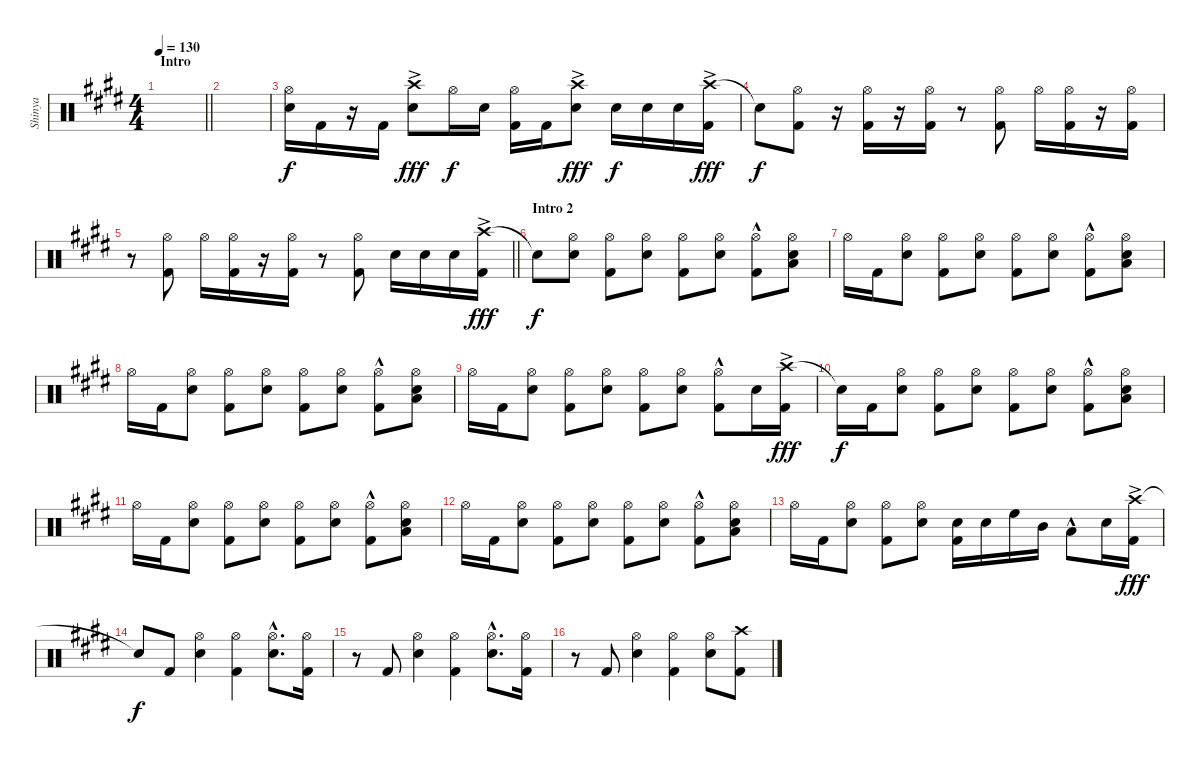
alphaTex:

\track ("Shinya" "Shinya") {instrument percussion}
\staff {score}
\articulation defaults
\ts (4 4)
\section ("" "Intro")
\tempo 130
\clef neutral
\barLineRight lightlight
\ks e
|
|
("Hi-Hat (open)" "Snare (hit) 2").16 "Kick (hit) 2".16 r.16 "Kick (hit) 2".16 ("Crash high (hit)"{ac} "Snare (hit) 2").8{dy fff} "Hi-Hat (open)".16{dy f} "Snare (hit) 2".16 ("Hi-Hat (open)" "Kick (hit) 2").16 "Kick (hit) 2".16 ("Crash high (hit)"{ac} "Snare (hit) 2").8{dy fff} "Snare (hit) 2".16{dy f} "Snare (hit) 2".16 "Snare (hit) 2".16 ("Crash high (hit)"{ac} "Kick (hit) 2").16{dy fff} |
"Snare (hit)"{t}.8{dy f} ("Hi-Hat (open)" "Kick (hit) 2").8 r.16 ("Hi-Hat (open)" "Kick (hit) 2").16 r.16 ("Hi-Hat (open)" "Kick (hit) 2").16 r.8 ("Hi-Hat (open)" "Kick (hit) 2").8 "Hi-Hat (open)".16 ("Hi-Hat (open)" "Kick (hit) 2").16 r.16 ("Hi-Hat (open)" "Kick (hit) 2").16 |
\barLineRight lightlight
r.8 ("Hi-Hat (open)" "Kick (hit) 2").8 "Hi-Hat (open)".16 ("Hi-Hat (open)" "Kick (hit) 2").16 r.16 ("Hi-Hat (open)" "Kick (hit) 2").16 r.8 ("Hi-Hat (open)" "Kick (hit) 2").8 "Snare (hit) 2".16 "Snare (hit) 2".16 "Snare (hit) 2".16 ("Crash high (hit)"{ac} "Kick (hit) 2").16{dy fff} |
\section ("" "Intro 2")
"Snare (hit)"{t}.8{dy f} ("Hi-Hat (open)" "Snare (hit) 2").8 ("Hi-Hat (open)" "Kick (hit) 2").8 ("Hi-Hat (open)" "Snare (hit) 2").8 ("Hi-Hat (open)" "Kick (hit) 2").8 ("Hi-Hat (open)" "Snare (hit) 2").8 ("Hi-Hat (open)"{hac} "Kick (hit) 2").8 ("Hi-Hat (open)" "Low Floor Tom (hit)" "Snare (hit) 2").8 |
"Hi-Hat (open)".16 "Kick (hit) 2".16 ("Hi-Hat (open)" "Snare (hit) 2").8 ("Hi-Hat (open)" "Kick (hit) 2").8 ("Hi-Hat (open)" "Snare (hit) 2").8 ("Hi-Hat (open)" "Kick (hit) 2").8 ("Hi-Hat (open)" "Snare (hit) 2").8 ("Hi-Hat (open)" "Kick (hit) 2"{hac}).8 ("Hi-Hat (open)" "Low Floor Tom (hit)" "Snare (hit) 2").8 |
"Hi-Hat (open)".16 "Kick (hit) 2".16 ("Hi-Hat (open)" "Snare (hit) 2").8 ("Hi-Hat (open)" "Kick (hit) 2").8 ("Hi-Hat (open)" "Snare (hit) 2").8 ("Hi-Hat (open)" "Kick (hit) 2").8 ("Hi-Hat (open)" "Snare (hit) 2").8 ("Hi-Hat (open)" "Kick (hit) 2"{hac}).8 ("Hi-Hat (open)" "Low Floor Tom (hit)" "Snare (hit) 2").8 |
"Hi-Hat (open)".16 "Kick (hit) 2".16 ("Hi-Hat (open)" "Snare (hit) 2").8 ("Hi-Hat (open)" "Kick (hit) 2").8 ("Hi-Hat (open)" "Snare (hit) 2").8 ("Hi-Hat (open)" "Kick (hit) 2").8 ("Hi-Hat (open)" "Snare (hit) 2").8 ("Hi-Hat (open)" "Kick (hit) 2"{hac}).8 "Snare (hit) 2".16 ("Crash high (hit)"{ac} "Kick (hit) 2").16{dy fff} |
"Snare (hit)"{t}.16{dy f} "Kick (hit) 2".16 ("Hi-Hat (open)" "Snare (hit) 2").8 ("Hi-Hat (open)" "Kick (hit) 2").8 ("Hi-Hat (open)" "Snare (hit) 2").8 ("Hi-Hat (open)" "Kick (hit) 2").8 ("Hi-Hat (open)" "Snare (hit) 2").8 ("Hi-Hat (open)" "Kick (hit) 2"{hac}).8 ("Hi-Hat (open)" "Low Floor Tom (hit)" "Snare (hit) 2").8 |
"Hi-Hat (open)".16 "Kick (hit) 2".16 ("Hi-Hat (open)" "Snare (hit) 2").8 ("Hi-Hat (open)" "Kick (hit) 2").8 ("Hi-Hat (open)" "Snare (hit) 2").8 ("Hi-Hat (open)" "Kick (hit) 2").8 ("Hi-Hat (open)" "Snare (hit) 2").8 ("Hi-Hat (open)" "Kick (hit) 2"{hac}).8 ("Hi-Hat (open)" "Low Floor Tom (hit)" "Snare (hit) 2").8 |
"Hi-Hat (open)".16 "Kick (hit) 2".16 ("Hi-Hat (open)" "Snare (hit) 2").8 ("Hi-Hat (open)" "Kick (hit) 2").8 ("Hi-Hat (open)" "Snare (hit) 2").8 ("Hi-Hat (open)" "Kick (hit) 2").8 ("Hi-Hat (open)" "Snare (hit) 2").8 ("Hi-Hat (open)" "Kick (hit) 2"{hac}).8 ("Hi-Hat (open)" "Low Floor Tom (hit)" "Snare (hit) 2").8 |
"Hi-Hat (open)".16 "Kick (hit) 2".16 ("Hi-Hat (open)" "Snare (hit) 2").8 ("Hi-Hat (open)" "Kick (hit) 2").8 ("Hi-Hat (open)" "Snare (hit) 2").8 ("Kick (hit) 2" "Snare (hit) 2").16 "Snare (hit) 2".16 "High Floor Tom (hit)".16 "Mid Tom (hit)".16 "Low Tom (hit)"{hac}.8 "Snare (hit) 2".16 ("Crash high (hit)"{ac} "Kick (hit) 2").16{dy fff} |
"Snare (hit)"{t}.8{dy f} "Kick (hit) 2".8 ("Hi-Hat (open)" "Snare (hit) 2").4 ("Hi-Hat (open)" "Kick (hit) 2").4 ("Hi-Hat (open)"{hac} "Snare (hit) 2"{hac}).8{d} ("Hi-Hat (open)" "Kick (hit) 2").16 |
r.8 "Kick (hit) 2".8 ("Hi-Hat (open)" "Snare (hit) 2").4 ("Hi-Hat (open)" "Kick (hit) 2").4 ("Hi-Hat (open)"{hac} "Snare (hit) 2"{hac}).8{d} ("Hi-Hat (open)" "Kick (hit) 2").16 |
r.8 "Kick (hit) 2".8 ("Hi-Hat (open)" "Snare (hit) 2").4 ("Hi-Hat (open)" "Kick (hit) 2").4 ("Hi-Hat (open)" "Snare (hit) 2").8 ("Crash high (hit)" "Kick (hit) 2").8
